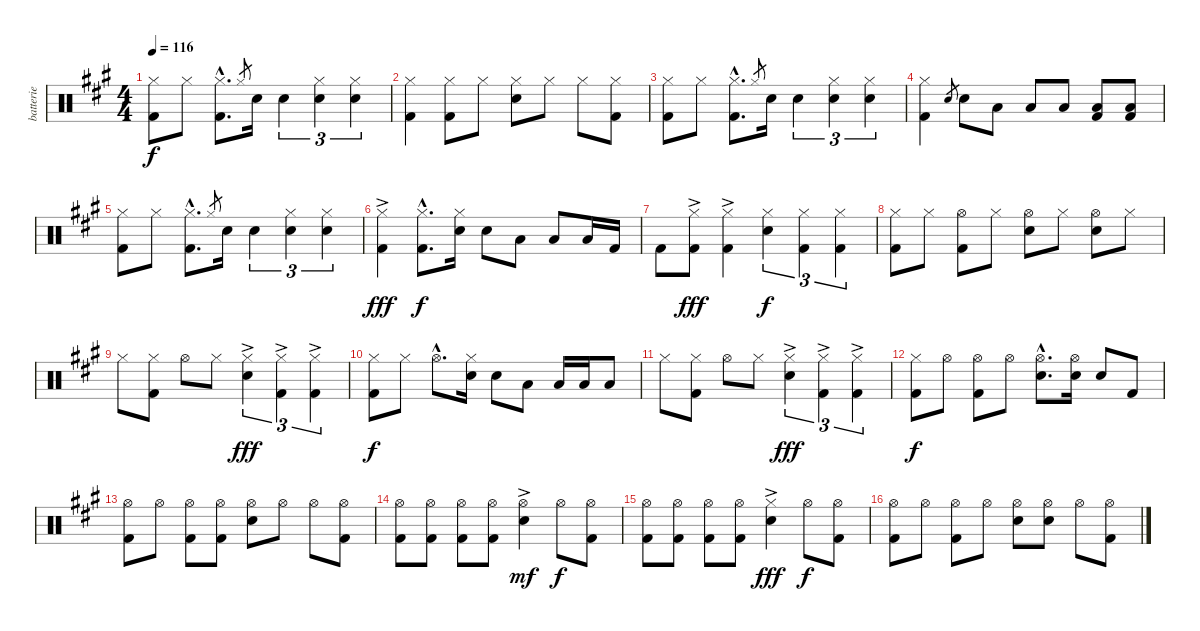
\track ("batterie" "batterie") {instrument percussion}
\staff {score}
\articulation defaults
\ts (4 4)
\tempo 116
\clef neutral
\ks a
("Kick (hit) 2" "Hi-Hat (closed)").8{dy f} "Hi-Hat (closed)".8 ("Kick (hit) 2"{hac} "Hi-Hat (closed)"{hac}).8{d} "Hi-Hat (closed)".8{gr} "Snare (hit) 2".16 "Snare (hit) 2".4{tu (3 2)} ("Snare (hit) 2" "Hi-Hat (closed)").4{tu (3 2)} ("Hi-Hat (closed)" "Snare (hit) 2").4{tu (3 2)} |
("Kick (hit) 2" "Hi-Hat (closed)").4 ("Kick (hit) 2" "Hi-Hat (closed)").8 "Hi-Hat (closed)".8 ("Hi-Hat (closed)" "Snare (hit) 2").8 "Hi-Hat (closed)".8 "Hi-Hat (closed)".8 ("Kick (hit) 2" "Hi-Hat (closed)").8 |
("Kick (hit) 2" "Hi-Hat (closed)").8 "Hi-Hat (closed)".8 ("Kick (hit) 2"{hac} "Hi-Hat (closed)"{hac}).8{d} "Hi-Hat (closed)".8{gr} "Snare (hit) 2".16 "Snare (hit) 2".4{tu (3 2)} ("Snare (hit) 2" "Hi-Hat (closed)").4{tu (3 2)} ("Hi-Hat (closed)" "Snare (hit) 2").4{tu (3 2)} |
("Kick (hit) 2" "Hi-Hat (closed)").4 "Snare (hit) 2".8{gr} "Snare (hit) 2".8 "Low Tom (hit)".8 "Low Tom (hit)".8 "Low Tom (hit)".8 ("Low Floor Tom (hit)" "Kick (hit) 2").8 ("Kick (hit) 2" "Low Floor Tom (hit)").8 |
("Kick (hit) 2" "Hi-Hat (closed)").8 "Hi-Hat (closed)".8 ("Kick (hit) 2"{hac} "Hi-Hat (closed)"{hac}).8{d} "Hi-Hat (closed)".8{gr} "Snare (hit) 2".16 "Snare (hit) 2".4{tu (3 2)} ("Snare (hit) 2" "Hi-Hat (closed)").4{tu (3 2)} ("Hi-Hat (closed)" "Snare (hit) 2").4{tu (3 2)} |
("Hi-Hat (closed)"{ac} "Kick (hit) 2").4{dy fff} ("Kick (hit) 2"{hac} "Hi-Hat (closed)"{hac}).8{d dy f} ("Hi-Hat (closed)" "Snare (hit) 2").16 "Snare (hit) 2".8 "Low Tom (hit)".8 "Low Floor Tom (hit)".8 "Low Floor Tom (hit)".16 "Kick (hit) 2".16 |
"Kick (hit) 2".8 ("Hi-Hat (closed)"{ac} "Kick (hit) 2").8{dy fff} ("Hi-Hat (closed)" "Kick (hit) 2"{ac}).4 ("Hi-Hat (closed)" "Snare (hit) 2").4{tu (3 2) dy f} ("Kick (hit) 2" "Hi-Hat (closed)").4{tu (3 2)} ("Kick (hit) 2" "Hi-Hat (closed)").4{tu (3 2)} |
("Hi-Hat (closed)" "Kick (hit) 2").8 "Hi-Hat (closed)".8 ("Hi-Hat (open)" "Kick (hit) 2").8 "Hi-Hat (closed)".8 ("Hi-Hat (open)" "Snare (hit) 2").8 "Hi-Hat (closed)".8 ("Hi-Hat (open)" "Snare (hit) 2").8 "Hi-Hat (closed)".8 |
"Hi-Hat (closed)".8 ("Hi-Hat (closed)" "Kick (hit) 2").8 "Hi-Hat (open)".8 "Hi-Hat (closed)".8 ("Hi-Hat (closed)"{ac} "Snare (hit) 2").4{tu (3 2) dy fff} ("Hi-Hat (closed)"{ac} "Kick (hit) 2").4{tu (3 2)} ("Hi-Hat (closed)"{ac} "Kick (hit) 2").4{tu (3 2)} |
("Hi-Hat (closed)" "Kick (hit) 2").8{dy f} "Hi-Hat (closed)".8 "Hi-Hat (open)"{hac}.8{d} ("Snare (hit) 2" "Hi-Hat (closed)").16 "Snare (hit) 2".8 "Low Tom (hit)".8 "Low Tom (hit)".16 "Low Tom (hit)".16 "Low Floor Tom (hit)".8 |
"Hi-Hat (closed)".8 ("Hi-Hat (closed)" "Kick (hit) 2").8 "Hi-Hat (open)".8 "Hi-Hat (closed)".8 ("Hi-Hat (closed)"{ac} "Snare (hit) 2").4{tu (3 2) dy fff} ("Hi-Hat (closed)"{ac} "Kick (hit) 2").4{tu (3 2)} ("Hi-Hat (closed)"{ac} "Kick (hit) 2").4{tu (3 2)} |
("Kick (hit) 2" "Hi-Hat (closed)").8{dy f} "Hi-Hat (open)".8 ("Hi-Hat (open)" "Kick (hit) 2").8 "Hi-Hat (open)".8 ("Hi-Hat (open)"{hac} "Snare (hit) 2"{hac}).8{d} ("Hi-Hat (open)" "Snare (hit) 2").16 "Snare (hit) 2".8 "Kick (hit) 2".8 |
("Hi-Hat (open)" "Kick (hit) 2").8 "Hi-Hat (open)".8 ("Kick (hit) 2" "Hi-Hat (open)").8 ("Kick (hit) 2" "Hi-Hat (open)").8 ("Hi-Hat (open)" "Snare (hit) 2").8 "Hi-Hat (open)".8 "Hi-Hat (open)".8 ("Kick (hit) 2" "Hi-Hat (open)").8 |
("Hi-Hat (open)" "Kick (hit) 2").8 ("Kick (hit) 2" "Hi-Hat (open)").8 ("Hi-Hat (open)" "Kick (hit) 2").8 ("Hi-Hat (open)" "Kick (hit) 2").8 ("Hi-Hat (open)"{ac} "Snare (hit) 2").4{dy mf} "Hi-Hat (open)".8{dy f} ("Hi-Hat (open)" "Kick (hit) 2").8 |
("Kick (hit) 2" "Hi-Hat (open)").8 ("Hi-Hat (open)" "Kick (hit) 2").8 ("Hi-Hat (open)" "Kick (hit) 2").8 ("Hi-Hat (open)" "Kick (hit) 2").8 ("Hi-Hat (closed)"{ac} "Snare (hit) 2").4{dy fff} "Hi-Hat (open)".8{dy f} ("Hi-Hat (open)" "Kick (hit) 2").8 |
("Kick (hit) 2" "Hi-Hat (open)").8 "Hi-Hat (open)".8 ("Hi-Hat (open)" "Kick (hit) 2").8 "Hi-Hat (open)".8 ("Snare (hit) 2" "Hi-Hat (open)").8 ("Snare (hit) 2" "Hi-Hat (open)").8 "Hi-Hat (open)".8 ("Kick (hit) 2" "Hi-Hat (open)").8
